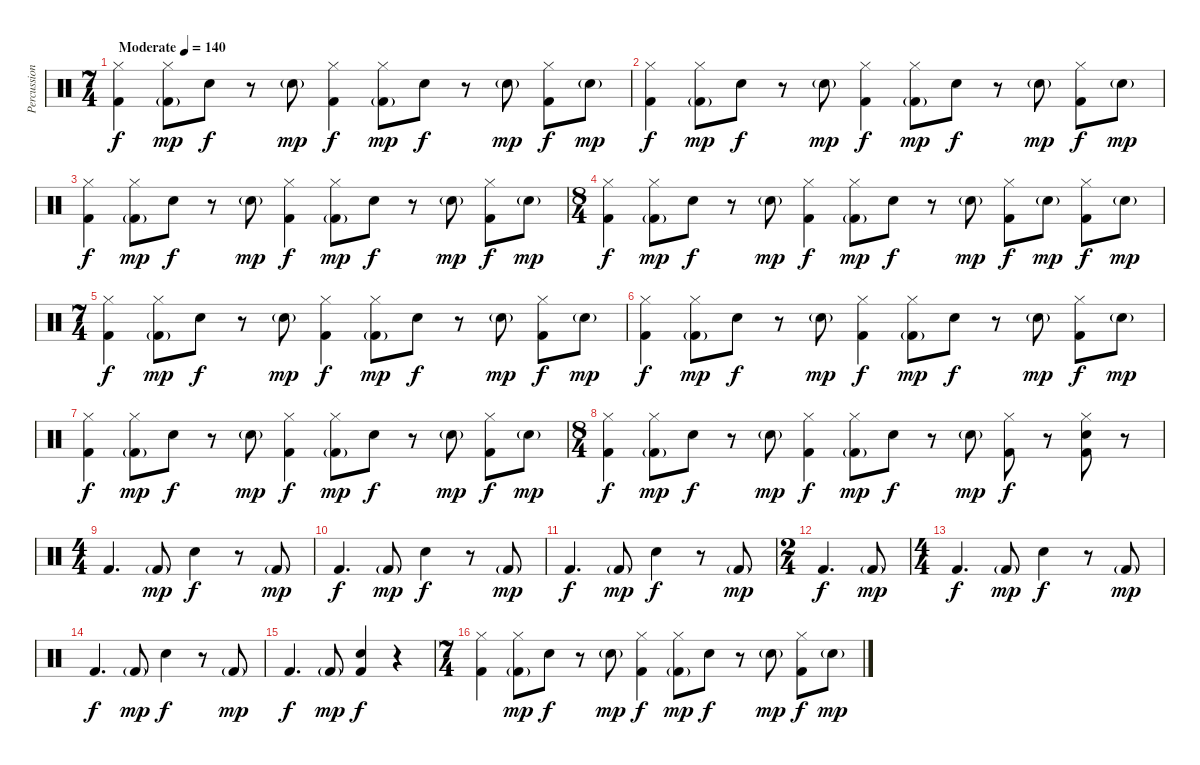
\track ("Percussion" "Percussion") {instrument percussion}
\staff {score}
\articulation defaults
\ts (7 4)
\tempo (140 "Moderate")
\clef neutral
\ks c
("Hi-Hat (closed)" "Kick (hit) 2").4{dy f} ("Hi-Hat (closed)" "Kick (hit) 2"{g}).8{dy mp} "Snare (hit) 2".8{dy f} r.8 "Snare (hit) 2"{g}.8{dy mp} ("Hi-Hat (closed)" "Kick (hit) 2").4{dy f} ("Hi-Hat (closed)" "Kick (hit) 2"{g}).8{dy mp} "Snare (hit) 2".8{dy f} r.8 "Snare (hit) 2"{g}.8{dy mp} ("Hi-Hat (closed)" "Kick (hit) 2").8{dy f} "Snare (hit) 2"{g}.8{dy mp} |
("Hi-Hat (closed)" "Kick (hit) 2").4{dy f} ("Hi-Hat (closed)" "Kick (hit) 2"{g}).8{dy mp} "Snare (hit) 2".8{dy f} r.8 "Snare (hit) 2"{g}.8{dy mp} ("Hi-Hat (closed)" "Kick (hit) 2").4{dy f} ("Hi-Hat (closed)" "Kick (hit) 2"{g}).8{dy mp} "Snare (hit) 2".8{dy f} r.8 "Snare (hit) 2"{g}.8{dy mp} ("Hi-Hat (closed)" "Kick (hit) 2").8{dy f} "Snare (hit) 2"{g}.8{dy mp} |
("Hi-Hat (closed)" "Kick (hit) 2").4{dy f} ("Hi-Hat (closed)" "Kick (hit) 2"{g}).8{dy mp} "Snare (hit) 2".8{dy f} r.8 "Snare (hit) 2"{g}.8{dy mp} ("Hi-Hat (closed)" "Kick (hit) 2").4{dy f} ("Hi-Hat (closed)" "Kick (hit) 2"{g}).8{dy mp} "Snare (hit) 2".8{dy f} r.8 "Snare (hit) 2"{g}.8{dy mp} ("Hi-Hat (closed)" "Kick (hit) 2").8{dy f} "Snare (hit) 2"{g}.8{dy mp} |
\ts (8 4)
("Hi-Hat (closed)" "Kick (hit) 2").4{dy f} ("Hi-Hat (closed)" "Kick (hit) 2"{g}).8{dy mp} "Snare (hit) 2".8{dy f} r.8 "Snare (hit) 2"{g}.8{dy mp} ("Hi-Hat (closed)" "Kick (hit) 2").4{dy f} ("Hi-Hat (closed)" "Kick (hit) 2"{g}).8{dy mp} "Snare (hit) 2".8{dy f} r.8 "Snare (hit) 2"{g}.8{dy mp} ("Hi-Hat (closed)" "Kick (hit) 2").8{dy f} "Snare (hit) 2"{g}.8{dy mp} ("Hi-Hat (closed)" "Kick (hit) 2").8{dy f} "Snare (hit) 2"{g}.8{dy mp} |
\ts (7 4)
("Hi-Hat (closed)" "Kick (hit) 2").4{dy f} ("Hi-Hat (closed)" "Kick (hit) 2"{g}).8{dy mp} "Snare (hit) 2".8{dy f} r.8 "Snare (hit) 2"{g}.8{dy mp} ("Hi-Hat (closed)" "Kick (hit) 2").4{dy f} ("Hi-Hat (closed)" "Kick (hit) 2"{g}).8{dy mp} "Snare (hit) 2".8{dy f} r.8 "Snare (hit) 2"{g}.8{dy mp} ("Hi-Hat (closed)" "Kick (hit) 2").8{dy f} "Snare (hit) 2"{g}.8{dy mp} |
("Hi-Hat (closed)" "Kick (hit) 2").4{dy f} ("Hi-Hat (closed)" "Kick (hit) 2"{g}).8{dy mp} "Snare (hit) 2".8{dy f} r.8 "Snare (hit) 2"{g}.8{dy mp} ("Hi-Hat (closed)" "Kick (hit) 2").4{dy f} ("Hi-Hat (closed)" "Kick (hit) 2"{g}).8{dy mp} "Snare (hit) 2".8{dy f} r.8 "Snare (hit) 2"{g}.8{dy mp} ("Hi-Hat (closed)" "Kick (hit) 2").8{dy f} "Snare (hit) 2"{g}.8{dy mp} |
("Hi-Hat (closed)" "Kick (hit) 2").4{dy f} ("Hi-Hat (closed)" "Kick (hit) 2"{g}).8{dy mp} "Snare (hit) 2".8{dy f} r.8 "Snare (hit) 2"{g}.8{dy mp} ("Hi-Hat (closed)" "Kick (hit) 2").4{dy f} ("Hi-Hat (closed)" "Kick (hit) 2"{g}).8{dy mp} "Snare (hit) 2".8{dy f} r.8 "Snare (hit) 2"{g}.8{dy mp} ("Hi-Hat (closed)" "Kick (hit) 2").8{dy f} "Snare (hit) 2"{g}.8{dy mp} |
\ts (8 4)
("Hi-Hat (closed)" "Kick (hit) 2").4{dy f} ("Hi-Hat (closed)" "Kick (hit) 2"{g}).8{dy mp} "Snare (hit) 2".8{dy f} r.8 "Snare (hit) 2"{g}.8{dy mp} ("Hi-Hat (closed)" "Kick (hit) 2").4{dy f} ("Hi-Hat (closed)" "Kick (hit) 2"{g}).8{dy mp} "Snare (hit) 2".8{dy f} r.8 "Snare (hit) 2"{g}.8{dy mp} ("Hi-Hat (closed)" "Kick (hit) 2").8{dy f} r.8 ("Hi-Hat (closed)" "Snare (hit) 2" "Kick (hit) 2").8 r.8 |
\ts (4 4)
"Kick (hit) 2".4{d} "Kick (hit) 2"{g}.8{dy mp} "Snare (hit) 2".4{dy f} r.8 "Kick (hit) 2"{g}.8{dy mp} |
"Kick (hit) 2".4{d dy f} "Kick (hit) 2"{g}.8{dy mp} "Snare (hit) 2".4{dy f} r.8 "Kick (hit) 2"{g}.8{dy mp} |
"Kick (hit) 2".4{d dy f} "Kick (hit) 2"{g}.8{dy mp} "Snare (hit) 2".4{dy f} r.8 "Kick (hit) 2"{g}.8{dy mp} |
\ts (2 4)
"Kick (hit) 2".4{d dy f} "Kick (hit) 2"{g}.8{dy mp} |
\ts (4 4)
"Kick (hit) 2".4{d dy f} "Kick (hit) 2"{g}.8{dy mp} "Snare (hit) 2".4{dy f} r.8 "Kick (hit) 2"{g}.8{dy mp} |
"Kick (hit) 2".4{d dy f} "Kick (hit) 2"{g}.8{dy mp} "Snare (hit) 2".4{dy f} r.8 "Kick (hit) 2"{g}.8{dy mp} |
"Kick (hit) 2".4{d dy f} "Kick (hit) 2"{g}.8{dy mp} ("Snare (hit) 2" "Kick (hit) 2").4{dy f} r.4 |
\ts (7 4)
("Hi-Hat (closed)" "Kick (hit) 2").4 ("Hi-Hat (closed)" "Kick (hit) 2"{g}).8{dy mp} "Snare (hit) 2".8{dy f} r.8 "Snare (hit) 2"{g}.8{dy mp} ("Hi-Hat (closed)" "Kick (hit) 2").4{dy f} ("Hi-Hat (closed)" "Kick (hit) 2"{g}).8{dy mp} "Snare (hit) 2".8{dy f} r.8 "Snare (hit) 2"{g}.8{dy mp} ("Hi-Hat (closed)" "Kick (hit) 2").8{dy f} "Snare (hit) 2"{g}.8{dy mp}
